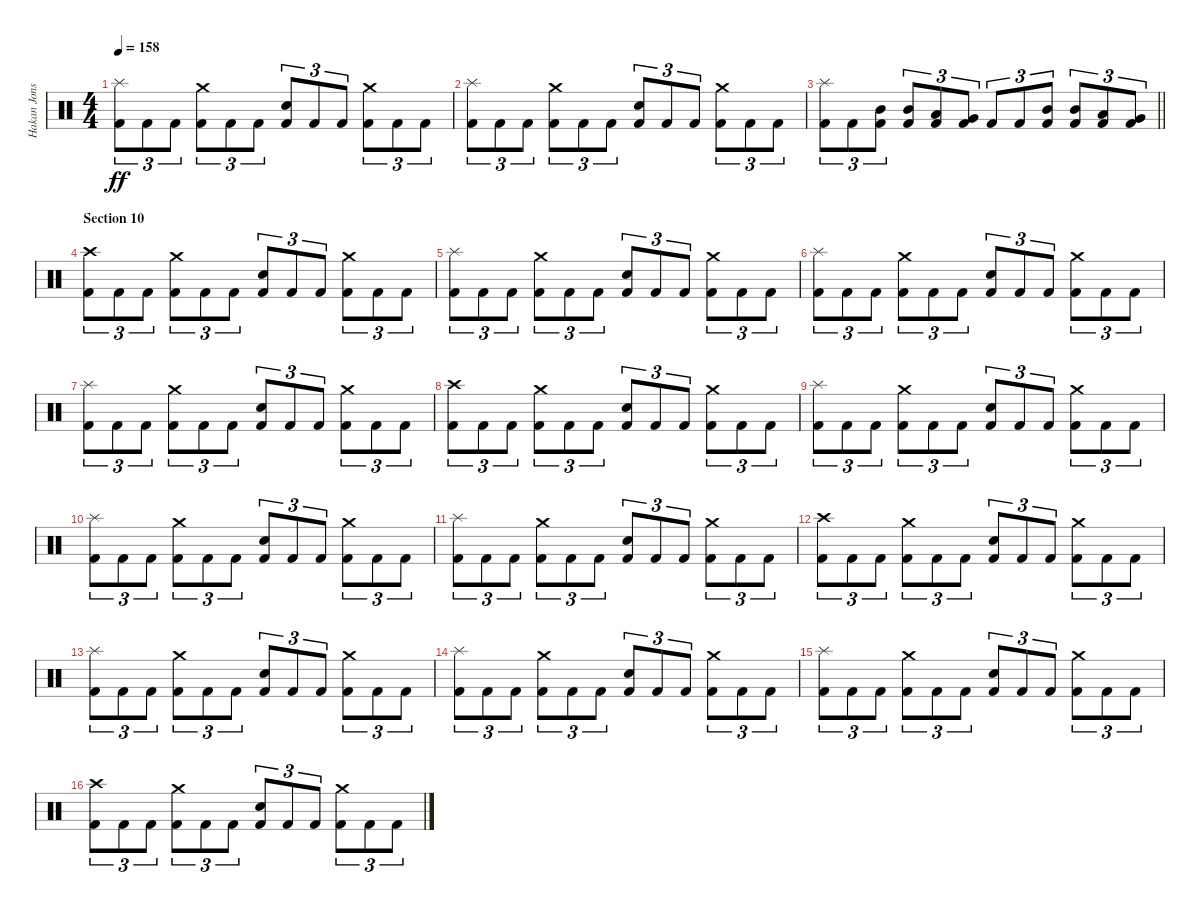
\track ("Hakan Jonsson" "Hakan Jons") {instrument percussion}
\staff {score}
\articulation defaults
\ts (4 4)
\tempo 158
\clef neutral
\ks c
("Splash (hit)" "Kick (hit) 2").8{tu (3 2) dy ff} "Kick (hit) 2".8{tu (3 2)} "Kick (hit) 2".8{tu (3 2)} ("Crash medium (hit)" "Kick (hit) 2").8{tu (3 2)} "Kick (hit) 2".8{tu (3 2)} "Kick (hit) 2".8{tu (3 2)} ("Electric Snare (hit)" "Kick (hit) 2").8{tu (3 2)} "Kick (hit) 2".8{tu (3 2)} "Kick (hit) 2".8{tu (3 2)} ("Crash medium (hit)" "Kick (hit) 2").8{tu (3 2)} "Kick (hit) 2".8{tu (3 2)} "Kick (hit) 2".8{tu (3 2)} |
("Splash (hit)" "Kick (hit) 2").8{tu (3 2)} "Kick (hit) 2".8{tu (3 2)} "Kick (hit) 2".8{tu (3 2)} ("Crash medium (hit)" "Kick (hit) 2").8{tu (3 2)} "Kick (hit) 2".8{tu (3 2)} "Kick (hit) 2".8{tu (3 2)} ("Electric Snare (hit)" "Kick (hit) 2").8{tu (3 2)} "Kick (hit) 2".8{tu (3 2)} "Kick (hit) 2".8{tu (3 2)} ("Crash medium (hit)" "Kick (hit) 2").8{tu (3 2)} "Kick (hit) 2".8{tu (3 2)} "Kick (hit) 2".8{tu (3 2)} |
\barLineRight lightlight
("Splash (hit)" "Kick (hit) 2").8{tu (3 2)} "Kick (hit) 2".8{tu (3 2)} ("Mid Tom (hit)" "Kick (hit) 2").8{tu (3 2)} ("Mid Tom (hit)" "Kick (hit) 2").8{tu (3 2)} ("Low Tom (hit)" "Kick (hit) 2").8{tu (3 2)} ("Very Low Tom (hit)" "Kick (hit) 2").8{tu (3 2)} "Kick (hit) 2".8{tu (3 2)} "Kick (hit) 2".8{tu (3 2)} ("Mid Tom (hit)" "Kick (hit) 2").8{tu (3 2)} ("Mid Tom (hit)" "Kick (hit) 2").8{tu (3 2)} ("Low Tom (hit)" "Kick (hit) 2").8{tu (3 2)} ("Very Low Tom (hit)" "Kick (hit) 2").8{tu (3 2)} |
\section ("" "Section 10")
("Crash high (hit)" "Kick (hit) 2").8{tu (3 2)} "Kick (hit) 2".8{tu (3 2)} "Kick (hit) 2".8{tu (3 2)} ("Crash medium (hit)" "Kick (hit) 2").8{tu (3 2)} "Kick (hit) 2".8{tu (3 2)} "Kick (hit) 2".8{tu (3 2)} ("Electric Snare (hit)" "Kick (hit) 2").8{tu (3 2)} "Kick (hit) 2".8{tu (3 2)} "Kick (hit) 2".8{tu (3 2)} ("Crash medium (hit)" "Kick (hit) 2").8{tu (3 2)} "Kick (hit) 2".8{tu (3 2)} "Kick (hit) 2".8{tu (3 2)} |
("Splash (hit)" "Kick (hit) 2").8{tu (3 2)} "Kick (hit) 2".8{tu (3 2)} "Kick (hit) 2".8{tu (3 2)} ("Crash medium (hit)" "Kick (hit) 2").8{tu (3 2)} "Kick (hit) 2".8{tu (3 2)} "Kick (hit) 2".8{tu (3 2)} ("Electric Snare (hit)" "Kick (hit) 2").8{tu (3 2)} "Kick (hit) 2".8{tu (3 2)} "Kick (hit) 2".8{tu (3 2)} ("Crash medium (hit)" "Kick (hit) 2").8{tu (3 2)} "Kick (hit) 2".8{tu (3 2)} "Kick (hit) 2".8{tu (3 2)} |
("Splash (hit)" "Kick (hit) 2").8{tu (3 2)} "Kick (hit) 2".8{tu (3 2)} "Kick (hit) 2".8{tu (3 2)} ("Crash medium (hit)" "Kick (hit) 2").8{tu (3 2)} "Kick (hit) 2".8{tu (3 2)} "Kick (hit) 2".8{tu (3 2)} ("Electric Snare (hit)" "Kick (hit) 2").8{tu (3 2)} "Kick (hit) 2".8{tu (3 2)} "Kick (hit) 2".8{tu (3 2)} ("Crash medium (hit)" "Kick (hit) 2").8{tu (3 2)} "Kick (hit) 2".8{tu (3 2)} "Kick (hit) 2".8{tu (3 2)} |
("Splash (hit)" "Kick (hit) 2").8{tu (3 2)} "Kick (hit) 2".8{tu (3 2)} "Kick (hit) 2".8{tu (3 2)} ("Crash medium (hit)" "Kick (hit) 2").8{tu (3 2)} "Kick (hit) 2".8{tu (3 2)} "Kick (hit) 2".8{tu (3 2)} ("Electric Snare (hit)" "Kick (hit) 2").8{tu (3 2)} "Kick (hit) 2".8{tu (3 2)} "Kick (hit) 2".8{tu (3 2)} ("Crash medium (hit)" "Kick (hit) 2").8{tu (3 2)} "Kick (hit) 2".8{tu (3 2)} "Kick (hit) 2".8{tu (3 2)} |
("Crash high (hit)" "Kick (hit) 2").8{tu (3 2)} "Kick (hit) 2".8{tu (3 2)} "Kick (hit) 2".8{tu (3 2)} ("Crash medium (hit)" "Kick (hit) 2").8{tu (3 2)} "Kick (hit) 2".8{tu (3 2)} "Kick (hit) 2".8{tu (3 2)} ("Electric Snare (hit)" "Kick (hit) 2").8{tu (3 2)} "Kick (hit) 2".8{tu (3 2)} "Kick (hit) 2".8{tu (3 2)} ("Crash medium (hit)" "Kick (hit) 2").8{tu (3 2)} "Kick (hit) 2".8{tu (3 2)} "Kick (hit) 2".8{tu (3 2)} |
("Splash (hit)" "Kick (hit) 2").8{tu (3 2)} "Kick (hit) 2".8{tu (3 2)} "Kick (hit) 2".8{tu (3 2)} ("Crash medium (hit)" "Kick (hit) 2").8{tu (3 2)} "Kick (hit) 2".8{tu (3 2)} "Kick (hit) 2".8{tu (3 2)} ("Electric Snare (hit)" "Kick (hit) 2").8{tu (3 2)} "Kick (hit) 2".8{tu (3 2)} "Kick (hit) 2".8{tu (3 2)} ("Crash medium (hit)" "Kick (hit) 2").8{tu (3 2)} "Kick (hit) 2".8{tu (3 2)} "Kick (hit) 2".8{tu (3 2)} |
("Splash (hit)" "Kick (hit) 2").8{tu (3 2)} "Kick (hit) 2".8{tu (3 2)} "Kick (hit) 2".8{tu (3 2)} ("Crash medium (hit)" "Kick (hit) 2").8{tu (3 2)} "Kick (hit) 2".8{tu (3 2)} "Kick (hit) 2".8{tu (3 2)} ("Electric Snare (hit)" "Kick (hit) 2").8{tu (3 2)} "Kick (hit) 2".8{tu (3 2)} "Kick (hit) 2".8{tu (3 2)} ("Crash medium (hit)" "Kick (hit) 2").8{tu (3 2)} "Kick (hit) 2".8{tu (3 2)} "Kick (hit) 2".8{tu (3 2)} |
("Splash (hit)" "Kick (hit) 2").8{tu (3 2)} "Kick (hit) 2".8{tu (3 2)} "Kick (hit) 2".8{tu (3 2)} ("Crash medium (hit)" "Kick (hit) 2").8{tu (3 2)} "Kick (hit) 2".8{tu (3 2)} "Kick (hit) 2".8{tu (3 2)} ("Electric Snare (hit)" "Kick (hit) 2").8{tu (3 2)} "Kick (hit) 2".8{tu (3 2)} "Kick (hit) 2".8{tu (3 2)} ("Crash medium (hit)" "Kick (hit) 2").8{tu (3 2)} "Kick (hit) 2".8{tu (3 2)} "Kick (hit) 2".8{tu (3 2)} |
("Crash high (hit)" "Kick (hit) 2").8{tu (3 2)} "Kick (hit) 2".8{tu (3 2)} "Kick (hit) 2".8{tu (3 2)} ("Crash medium (hit)" "Kick (hit) 2").8{tu (3 2)} "Kick (hit) 2".8{tu (3 2)} "Kick (hit) 2".8{tu (3 2)} ("Electric Snare (hit)" "Kick (hit) 2").8{tu (3 2)} "Kick (hit) 2".8{tu (3 2)} "Kick (hit) 2".8{tu (3 2)} ("Crash medium (hit)" "Kick (hit) 2").8{tu (3 2)} "Kick (hit) 2".8{tu (3 2)} "Kick (hit) 2".8{tu (3 2)} |
("Splash (hit)" "Kick (hit) 2").8{tu (3 2)} "Kick (hit) 2".8{tu (3 2)} "Kick (hit) 2".8{tu (3 2)} ("Crash medium (hit)" "Kick (hit) 2").8{tu (3 2)} "Kick (hit) 2".8{tu (3 2)} "Kick (hit) 2".8{tu (3 2)} ("Electric Snare (hit)" "Kick (hit) 2").8{tu (3 2)} "Kick (hit) 2".8{tu (3 2)} "Kick (hit) 2".8{tu (3 2)} ("Crash medium (hit)" "Kick (hit) 2").8{tu (3 2)} "Kick (hit) 2".8{tu (3 2)} "Kick (hit) 2".8{tu (3 2)} |
("Splash (hit)" "Kick (hit) 2").8{tu (3 2)} "Kick (hit) 2".8{tu (3 2)} "Kick (hit) 2".8{tu (3 2)} ("Crash medium (hit)" "Kick (hit) 2").8{tu (3 2)} "Kick (hit) 2".8{tu (3 2)} "Kick (hit) 2".8{tu (3 2)} ("Electric Snare (hit)" "Kick (hit) 2").8{tu (3 2)} "Kick (hit) 2".8{tu (3 2)} "Kick (hit) 2".8{tu (3 2)} ("Crash medium (hit)" "Kick (hit) 2").8{tu (3 2)} "Kick (hit) 2".8{tu (3 2)} "Kick (hit) 2".8{tu (3 2)} |
("Splash (hit)" "Kick (hit) 2").8{tu (3 2)} "Kick (hit) 2".8{tu (3 2)} "Kick (hit) 2".8{tu (3 2)} ("Crash medium (hit)" "Kick (hit) 2").8{tu (3 2)} "Kick (hit) 2".8{tu (3 2)} "Kick (hit) 2".8{tu (3 2)} ("Electric Snare (hit)" "Kick (hit) 2").8{tu (3 2)} "Kick (hit) 2".8{tu (3 2)} "Kick (hit) 2".8{tu (3 2)} ("Crash medium (hit)" "Kick (hit) 2").8{tu (3 2)} "Kick (hit) 2".8{tu (3 2)} "Kick (hit) 2".8{tu (3 2)} |
("Crash high (hit)" "Kick (hit) 2").8{tu (3 2)} "Kick (hit) 2".8{tu (3 2)} "Kick (hit) 2".8{tu (3 2)} ("Crash medium (hit)" "Kick (hit) 2").8{tu (3 2)} "Kick (hit) 2".8{tu (3 2)} "Kick (hit) 2".8{tu (3 2)} ("Electric Snare (hit)" "Kick (hit) 2").8{tu (3 2)} "Kick (hit) 2".8{tu (3 2)} "Kick (hit) 2".8{tu (3 2)} ("Crash medium (hit)" "Kick (hit) 2").8{tu (3 2)} "Kick (hit) 2".8{tu (3 2)} "Kick (hit) 2".8{tu (3 2)}
